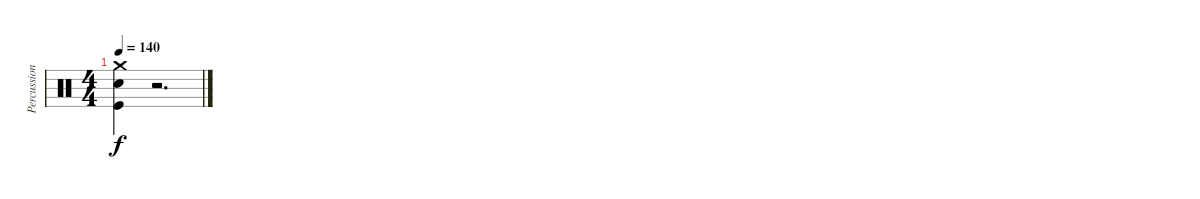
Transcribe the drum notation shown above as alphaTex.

\track ("Percussions( Gearbox )" "Percussion") {instrument percussion}
\staff {score}
\articulation defaults
\ts (4 4)
\tempo 140
\clef neutral
\ks c
("Crash medium (hit)" "Snare (hit) 2" "Kick (hit)").4{dy f} r.2{d}
